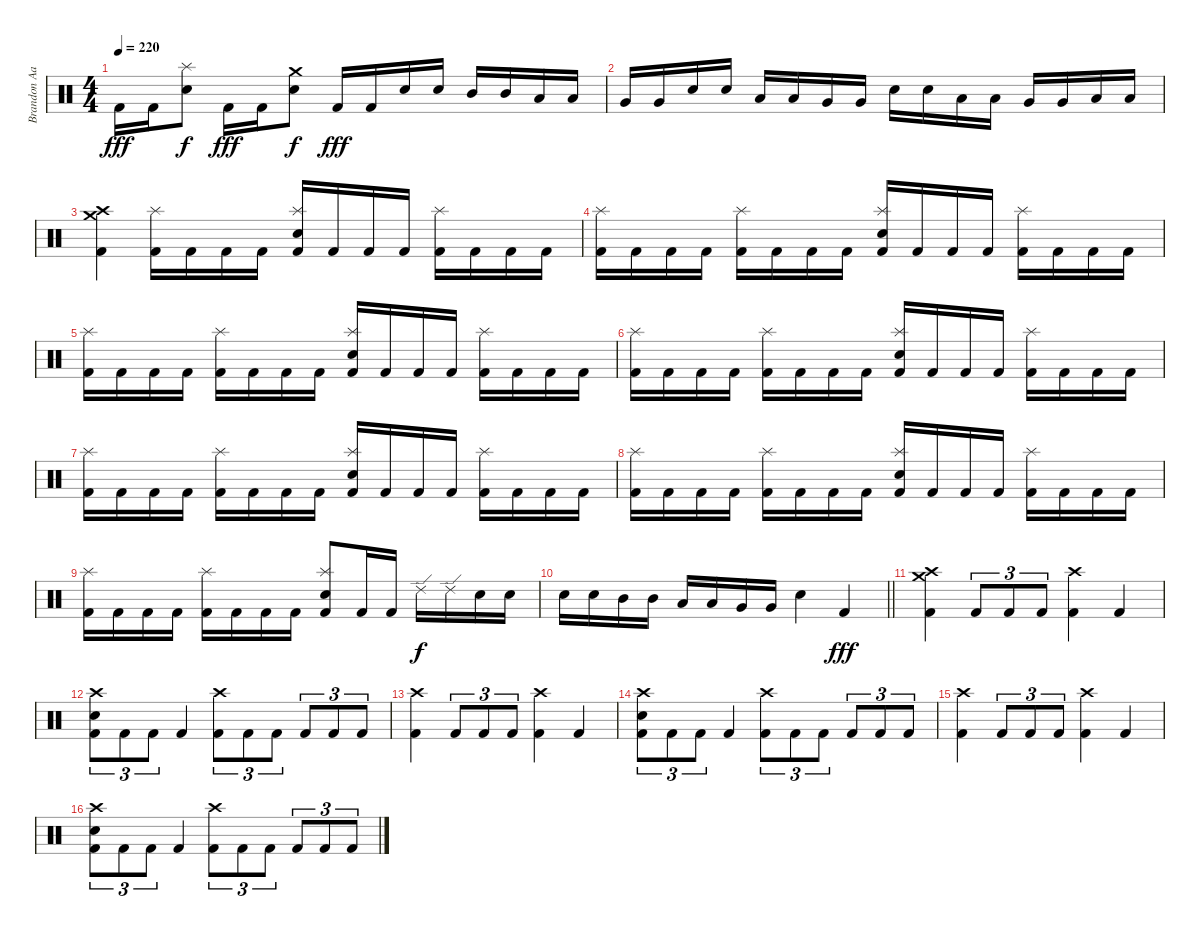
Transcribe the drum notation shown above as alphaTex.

\track ("Brandon Aaron Burkhalter" "Brandon Aa") {instrument percussion}
\staff {score}
\articulation defaults
\ts (4 4)
\tempo 220
\clef neutral
\ks c "Kick (hit) 2".16{dy fff} "Kick (hit) 2".16
("Splash (hit)" "Snare (hit) 2").8{dy f} "Kick (hit) 2".16{dy fff} "Kick (hit) 2".16 ("Crash medium (hit)" "Snare (hit) 2").8{dy f} "Kick (hit) 2".16{dy fff} "Kick (hit) 2".16 "Snare (hit) 2".16 "Snare (hit) 2".16 "Mid Tom (hit)".16 "Mid Tom (hit)".16 "Low Tom (hit)".16 "Low Tom (hit)".16 |
"Very Low Tom (hit)".16 "Very Low Tom (hit)".16 "Snare (hit) 2".16 "Snare (hit) 2".16 "Low Tom (hit)".16 "Low Tom (hit)".16 "Very Low Tom (hit)".16 "Very Low Tom (hit)".16 "Snare (hit) 2".16 "Snare (hit) 2".16 "Low Tom (hit)".16 "Low Tom (hit)".16 "Very Low Tom (hit)".16 "Very Low Tom (hit)".16 "Low Floor Tom (hit)".16 "Low Floor Tom (hit)".16 |
("Crash medium (hit)" "Crash high (hit)" "Kick (hit) 2").4 ("Splash (hit)" "Kick (hit) 2").16 "Kick (hit) 2".16 "Kick (hit) 2".16 "Kick (hit) 2".16 ("Splash (hit)" "Snare (hit) 2" "Kick (hit) 2").16 "Kick (hit) 2".16 "Kick (hit) 2".16 "Kick (hit) 2".16 ("Splash (hit)" "Kick (hit) 2").16 "Kick (hit) 2".16 "Kick (hit) 2".16 "Kick (hit) 2".16 |
("Splash (hit)" "Kick (hit) 2").16 "Kick (hit) 2".16 "Kick (hit) 2".16 "Kick (hit) 2".16 ("Splash (hit)" "Kick (hit) 2").16 "Kick (hit) 2".16 "Kick (hit) 2".16 "Kick (hit) 2".16 ("Splash (hit)" "Snare (hit) 2" "Kick (hit) 2").16 "Kick (hit) 2".16 "Kick (hit) 2".16 "Kick (hit) 2".16 ("Splash (hit)" "Kick (hit) 2").16 "Kick (hit) 2".16 "Kick (hit) 2".16 "Kick (hit) 2".16 |
("Splash (hit)" "Kick (hit) 2").16 "Kick (hit) 2".16 "Kick (hit) 2".16 "Kick (hit) 2".16 ("Splash (hit)" "Kick (hit) 2").16 "Kick (hit) 2".16 "Kick (hit) 2".16 "Kick (hit) 2".16 ("Splash (hit)" "Snare (hit) 2" "Kick (hit) 2").16 "Kick (hit) 2".16 "Kick (hit) 2".16 "Kick (hit) 2".16 ("Splash (hit)" "Kick (hit) 2").16 "Kick (hit) 2".16 "Kick (hit) 2".16 "Kick (hit) 2".16 |
("Splash (hit)" "Kick (hit) 2").16 "Kick (hit) 2".16 "Kick (hit) 2".16 "Kick (hit) 2".16 ("Splash (hit)" "Kick (hit) 2").16 "Kick (hit) 2".16 "Kick (hit) 2".16 "Kick (hit) 2".16 ("Splash (hit)" "Snare (hit) 2" "Kick (hit) 2").16 "Kick (hit) 2".16 "Kick (hit) 2".16 "Kick (hit) 2".16 ("Splash (hit)" "Kick (hit) 2").16 "Kick (hit) 2".16 "Kick (hit) 2".16 "Kick (hit) 2".16 |
("Splash (hit)" "Kick (hit) 2").16 "Kick (hit) 2".16 "Kick (hit) 2".16 "Kick (hit) 2".16 ("Splash (hit)" "Kick (hit) 2").16 "Kick (hit) 2".16 "Kick (hit) 2".16 "Kick (hit) 2".16 ("Splash (hit)" "Snare (hit) 2" "Kick (hit) 2").16 "Kick (hit) 2".16 "Kick (hit) 2".16 "Kick (hit) 2".16 ("Splash (hit)" "Kick (hit) 2").16 "Kick (hit) 2".16 "Kick (hit) 2".16 "Kick (hit) 2".16 |
("Splash (hit)" "Kick (hit) 2").16 "Kick (hit) 2".16 "Kick (hit) 2".16 "Kick (hit) 2".16 ("Splash (hit)" "Kick (hit) 2").16 "Kick (hit) 2".16 "Kick (hit) 2".16 "Kick (hit) 2".16 ("Splash (hit)" "Snare (hit) 2" "Kick (hit) 2").16 "Kick (hit) 2".16 "Kick (hit) 2".16 "Kick (hit) 2".16 ("Splash (hit)" "Kick (hit) 2").16 "Kick (hit) 2".16 "Kick (hit) 2".16 "Kick (hit) 2".16 |
("Splash (hit)" "Kick (hit) 2").16 "Kick (hit) 2".16 "Kick (hit) 2".16 "Kick (hit) 2".16 ("Splash (hit)" "Kick (hit) 2").16 "Kick (hit) 2".16 "Kick (hit) 2".16 "Kick (hit) 2".16 ("Splash (hit)" "Snare (hit) 2" "Kick (hit) 2").8 "Kick (hit) 2".16 "Kick (hit) 2".16 "Ride (edge) 2".16{dy f} "Ride (edge) 2".16 "Snare (hit) 2".16 "Snare (hit) 2".16 |
\barLineRight lightlight "Snare (hit) 2".16 "Snare (hit) 2".16 "Mid Tom (hit)".16 "Mid Tom (hit)".16 "Low Tom (hit)".16 "Low Tom (hit)".16 "Very Low Tom (hit)".16 "Very Low Tom (hit)".16 "Snare (hit) 2".4 "Kick (hit) 2".4{dy fff}
|
("Crash medium (hit)" "Crash high (hit)" "Kick (hit) 2").4 "Kick (hit) 2".8{tu (3 2)} "Kick (hit) 2".8{tu (3 2)} "Kick (hit) 2".8{tu (3 2)} ("Crash high (hit)" "Kick (hit) 2").4 "Kick (hit) 2".4 |
("Crash high (hit)" "Snare (hit) 2" "Kick (hit) 2").8{tu (3 2)} "Kick (hit) 2".8{tu (3 2)} "Kick (hit) 2".8{tu (3 2)} "Kick (hit) 2".4 ("Crash high (hit)" "Kick (hit) 2").8{tu (3 2)} "Kick (hit) 2".8{tu (3 2)} "Kick (hit) 2".8{tu (3 2)} "Kick (hit) 2".8{tu (3 2)} "Kick (hit) 2".8{tu (3 2)} "Kick (hit) 2".8{tu (3 2)} |
("Crash high (hit)" "Kick (hit) 2").4 "Kick (hit) 2".8{tu (3 2)} "Kick (hit) 2".8{tu (3 2)} "Kick (hit) 2".8{tu (3 2)} ("Crash high (hit)" "Kick (hit) 2").4 "Kick (hit) 2".4 |
("Crash high (hit)" "Snare (hit) 2" "Kick (hit) 2").8{tu (3 2)} "Kick (hit) 2".8{tu (3 2)} "Kick (hit) 2".8{tu (3 2)} "Kick (hit) 2".4 ("Crash high (hit)" "Kick (hit) 2").8{tu (3 2)} "Kick (hit) 2".8{tu (3 2)} "Kick (hit) 2".8{tu (3 2)} "Kick (hit) 2".8{tu (3 2)} "Kick (hit) 2".8{tu (3 2)} "Kick (hit) 2".8{tu (3 2)} |
("Crash high (hit)" "Kick (hit) 2").4 "Kick (hit) 2".8{tu (3 2)} "Kick (hit) 2".8{tu (3 2)} "Kick (hit) 2".8{tu (3 2)} ("Crash high (hit)" "Kick (hit) 2").4 "Kick (hit) 2".4 |
("Crash high (hit)" "Snare (hit) 2" "Kick (hit) 2").8{tu (3 2)} "Kick (hit) 2".8{tu (3 2)} "Kick (hit) 2".8{tu (3 2)} "Kick (hit) 2".4 ("Crash high (hit)" "Kick (hit) 2").8{tu (3 2)} "Kick (hit) 2".8{tu (3 2)} "Kick (hit) 2".8{tu (3 2)} "Kick (hit) 2".8{tu (3 2)} "Kick (hit) 2".8{tu (3 2)} "Kick (hit) 2".8{tu (3 2)}
